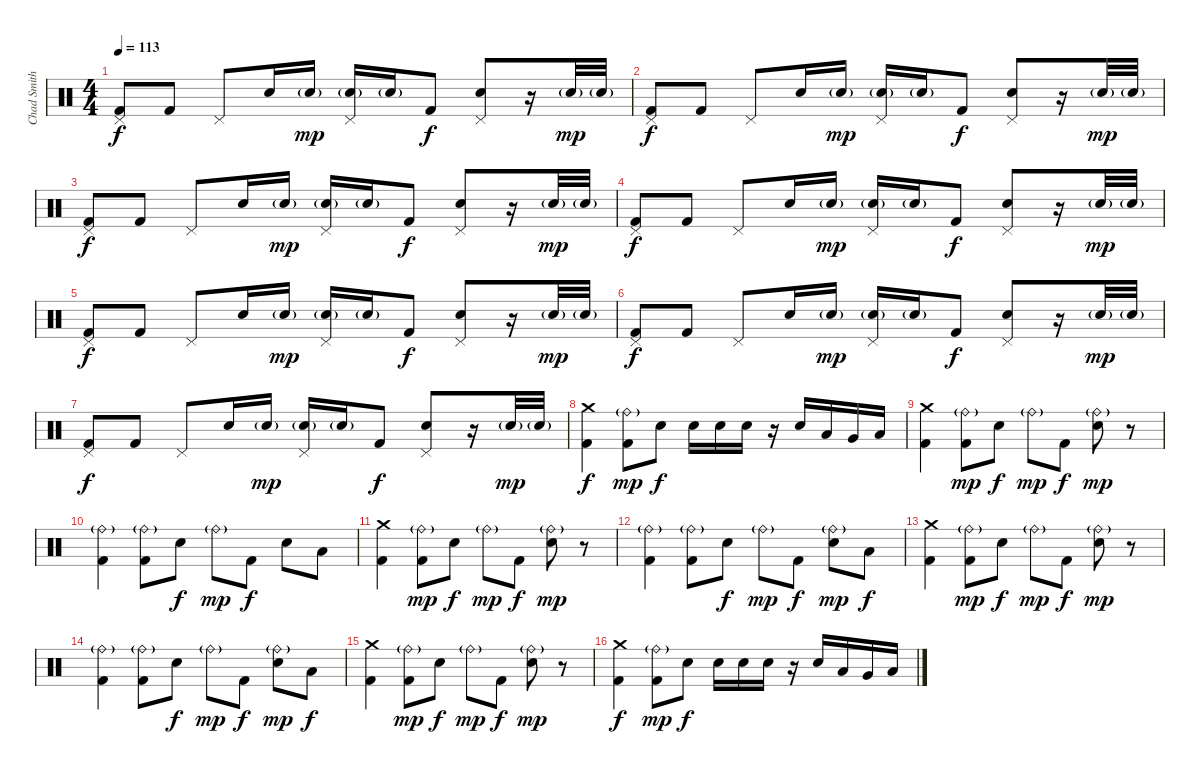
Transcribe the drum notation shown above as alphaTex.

\track ("Chad Smith" "Chad Smith") {instrument percussion}
\staff {score}
\articulation defaults
\ts (4 4)
\tempo 113
\clef neutral
\ks c
("Pedal Hi-Hat (hit)" "Kick (hit) 2").8{dy f} "Kick (hit) 2".8 "Pedal Hi-Hat (hit)".8 "Snare (hit) 2".16 "Snare (hit) 2"{g}.16{dy mp} ("Pedal Hi-Hat (hit)" "Snare (hit) 2"{g}).16 "Snare (hit) 2"{g}.16 "Kick (hit) 2".8{dy f} ("Pedal Hi-Hat (hit)" "Snare (hit) 2").8 r.16 "Snare (hit) 2"{g}.32{dy mp} "Snare (hit) 2"{g}.32 |
("Pedal Hi-Hat (hit)" "Kick (hit) 2").8{dy f} "Kick (hit) 2".8 "Pedal Hi-Hat (hit)".8 "Snare (hit) 2".16 "Snare (hit) 2"{g}.16{dy mp} ("Pedal Hi-Hat (hit)" "Snare (hit) 2"{g}).16 "Snare (hit) 2"{g}.16 "Kick (hit) 2".8{dy f} ("Pedal Hi-Hat (hit)" "Snare (hit) 2").8 r.16 "Snare (hit) 2"{g}.32{dy mp} "Snare (hit) 2"{g}.32 |
("Pedal Hi-Hat (hit)" "Kick (hit) 2").8{dy f} "Kick (hit) 2".8 "Pedal Hi-Hat (hit)".8 "Snare (hit) 2".16 "Snare (hit) 2"{g}.16{dy mp} ("Pedal Hi-Hat (hit)" "Snare (hit) 2"{g}).16 "Snare (hit) 2"{g}.16 "Kick (hit) 2".8{dy f} ("Pedal Hi-Hat (hit)" "Snare (hit) 2").8 r.16 "Snare (hit) 2"{g}.32{dy mp} "Snare (hit) 2"{g}.32 |
("Pedal Hi-Hat (hit)" "Kick (hit) 2").8{dy f} "Kick (hit) 2".8 "Pedal Hi-Hat (hit)".8 "Snare (hit) 2".16 "Snare (hit) 2"{g}.16{dy mp} ("Pedal Hi-Hat (hit)" "Snare (hit) 2"{g}).16 "Snare (hit) 2"{g}.16 "Kick (hit) 2".8{dy f} ("Pedal Hi-Hat (hit)" "Snare (hit) 2").8 r.16 "Snare (hit) 2"{g}.32{dy mp} "Snare (hit) 2"{g}.32 |
("Pedal Hi-Hat (hit)" "Kick (hit) 2").8{dy f} "Kick (hit) 2".8 "Pedal Hi-Hat (hit)".8 "Snare (hit) 2".16 "Snare (hit) 2"{g}.16{dy mp} ("Pedal Hi-Hat (hit)" "Snare (hit) 2"{g}).16 "Snare (hit) 2"{g}.16 "Kick (hit) 2".8{dy f} ("Pedal Hi-Hat (hit)" "Snare (hit) 2").8 r.16 "Snare (hit) 2"{g}.32{dy mp} "Snare (hit) 2"{g}.32 |
("Pedal Hi-Hat (hit)" "Kick (hit) 2").8{dy f} "Kick (hit) 2".8 "Pedal Hi-Hat (hit)".8 "Snare (hit) 2".16 "Snare (hit) 2"{g}.16{dy mp} ("Pedal Hi-Hat (hit)" "Snare (hit) 2"{g}).16 "Snare (hit) 2"{g}.16 "Kick (hit) 2".8{dy f} ("Pedal Hi-Hat (hit)" "Snare (hit) 2").8 r.16 "Snare (hit) 2"{g}.32{dy mp} "Snare (hit) 2"{g}.32 |
("Pedal Hi-Hat (hit)" "Kick (hit) 2").8{dy f} "Kick (hit) 2".8 "Pedal Hi-Hat (hit)".8 "Snare (hit) 2".16 "Snare (hit) 2"{g}.16{dy mp} ("Pedal Hi-Hat (hit)" "Snare (hit) 2"{g}).16 "Snare (hit) 2"{g}.16 "Kick (hit) 2".8{dy f} ("Pedal Hi-Hat (hit)" "Snare (hit) 2").8 r.16 "Snare (hit) 2"{g}.32{dy mp} "Snare (hit) 2"{g}.32 |
("Crash medium (hit)" "Kick (hit) 2").4{dy f} ("Ride (bell)"{g} "Kick (hit) 2").8{dy mp} "Snare (hit) 2".8{dy f} "Snare (hit) 2".16 "Snare (hit) 2".16 "Snare (hit) 2".16 r.16 "Snare (hit) 2".16 "Low Tom (hit)".16 "Very Low Tom (hit)".16 "Low Floor Tom (hit)".16 |
("Crash medium (hit)" "Kick (hit) 2").4 ("Ride (bell)"{g} "Kick (hit) 2").8{dy mp} "Snare (hit) 2".8{dy f} "Ride (bell)"{g}.8{dy mp} "Kick (hit) 2".8{dy f} ("Ride (bell)"{g} "Snare (hit) 2").8{dy mp} r.8 |
("Ride (bell)"{g} "Kick (hit) 2").4 ("Ride (bell)"{g} "Kick (hit) 2").8 "Snare (hit) 2".8{dy f} "Ride (bell)"{g}.8{dy mp} "Kick (hit) 2".8{dy f} "Snare (hit) 2".8 "Low Floor Tom (hit)".8 |
("Crash medium (hit)" "Kick (hit) 2").4 ("Ride (bell)"{g} "Kick (hit) 2").8{dy mp} "Snare (hit) 2".8{dy f} "Ride (bell)"{g}.8{dy mp} "Kick (hit) 2".8{dy f} ("Ride (bell)"{g} "Snare (hit) 2").8{dy mp} r.8 |
("Ride (bell)"{g} "Kick (hit) 2").4 ("Ride (bell)"{g} "Kick (hit) 2").8 "Snare (hit) 2".8{dy f} "Ride (bell)"{g}.8{dy mp} "Kick (hit) 2".8{dy f} ("Ride (bell)"{g} "Snare (hit) 2").8{dy mp} "Low Floor Tom (hit)".8{dy f} |
("Crash medium (hit)" "Kick (hit) 2").4 ("Ride (bell)"{g} "Kick (hit) 2").8{dy mp} "Snare (hit) 2".8{dy f} "Ride (bell)"{g}.8{dy mp} "Kick (hit) 2".8{dy f} ("Ride (bell)"{g} "Snare (hit) 2").8{dy mp} r.8 |
("Ride (bell)"{g} "Kick (hit) 2").4 ("Ride (bell)"{g} "Kick (hit) 2").8 "Snare (hit) 2".8{dy f} "Ride (bell)"{g}.8{dy mp} "Kick (hit) 2".8{dy f} ("Ride (bell)"{g} "Snare (hit) 2").8{dy mp} "Low Floor Tom (hit)".8{dy f} |
("Crash medium (hit)" "Kick (hit) 2").4 ("Ride (bell)"{g} "Kick (hit) 2").8{dy mp} "Snare (hit) 2".8{dy f} "Ride (bell)"{g}.8{dy mp} "Kick (hit) 2".8{dy f} ("Ride (bell)"{g} "Snare (hit) 2").8{dy mp} r.8 |
("Crash medium (hit)" "Kick (hit) 2").4{dy f} ("Ride (bell)"{g} "Kick (hit) 2").8{dy mp} "Snare (hit) 2".8{dy f} "Snare (hit) 2".16 "Snare (hit) 2".16 "Snare (hit) 2".16 r.16 "Snare (hit) 2".16 "Low Tom (hit)".16 "Very Low Tom (hit)".16 "Low Floor Tom (hit)".16
